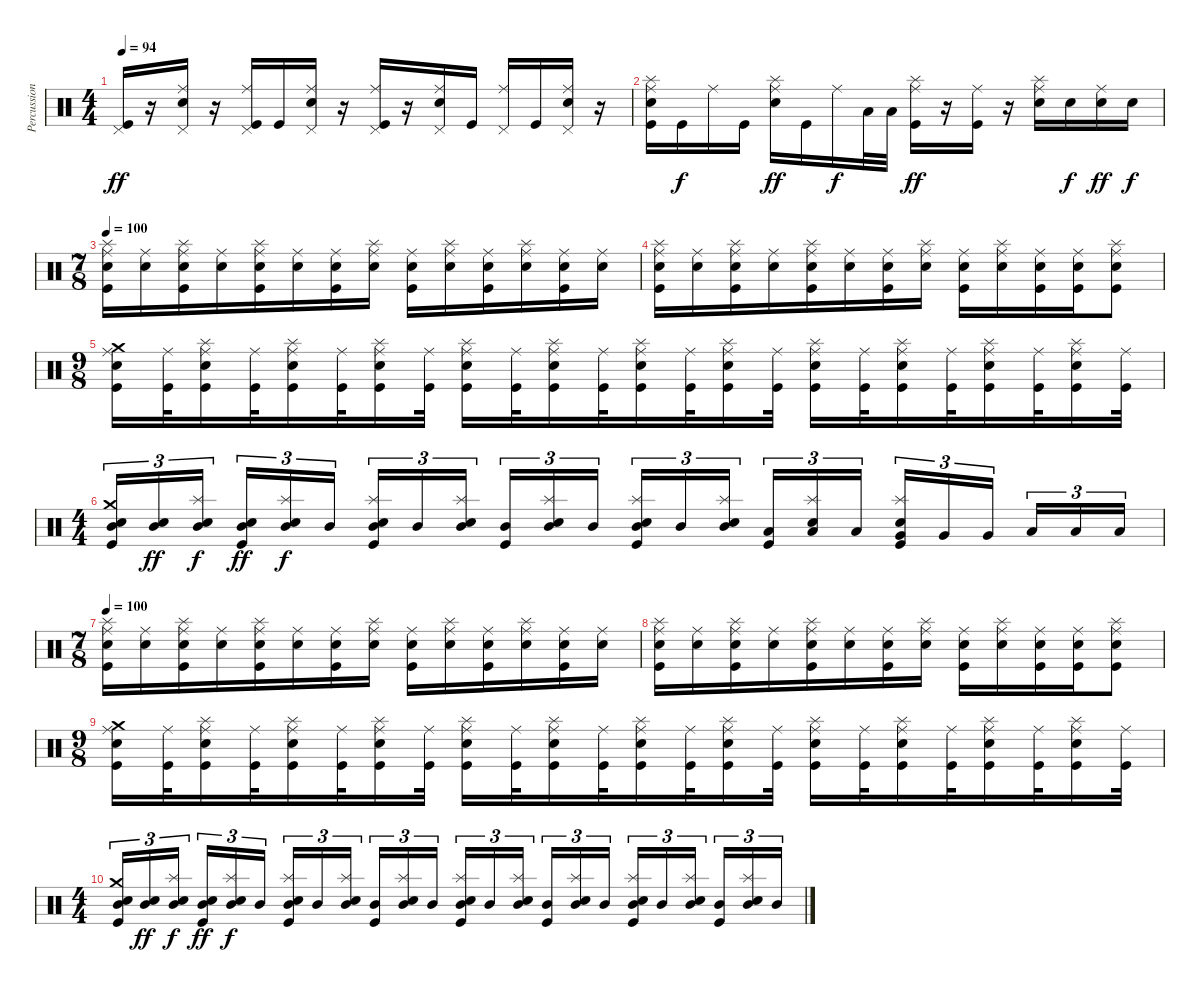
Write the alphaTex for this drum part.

\track ("Percussion" "Percussion") {instrument percussion}
\staff {score}
\articulation defaults
\ts (4 4)
\tempo 94
\clef neutral
\ks c
("Pedal Hi-Hat (hit)" "Kick (hit)").16{dy ff} r.16 ("Pedal Hi-Hat (hit)" "Ride (middle)" "Electric Snare (hit)").16 r.16 ("Pedal Hi-Hat (hit)" "Ride (middle)" "Kick (hit)").16 "Kick (hit)".16 ("Pedal Hi-Hat (hit)" "Ride (middle)" "Electric Snare (hit)").16 r.16 ("Pedal Hi-Hat (hit)" "Ride (middle)" "Kick (hit)").16 r.16 ("Pedal Hi-Hat (hit)" "Ride (middle)" "Electric Snare (hit)").16 "Kick (hit)".16 ("Pedal Hi-Hat (hit)" "Ride (middle)").16 "Kick (hit)".16 ("Pedal Hi-Hat (hit)" "Ride (middle)" "Electric Snare (hit)").16 r.16 |
("Ride (middle)" "Splash (hit)" "Electric Snare (hit)" "Kick (hit)").16 "Kick (hit)".16{dy f} "Ride (middle)".16 "Kick (hit)".16 ("Ride (middle)" "Splash (hit)" "Electric Snare (hit)").16{dy ff} "Kick (hit)".16 "Ride (middle)".16{dy f} "Low Tom (hit)".32 "Low Tom (hit)".32 ("Ride (middle)" "Splash (hit)" "Kick (hit)").16{dy ff} r.16 ("Ride (middle)" "Kick (hit)").16 r.16 ("Ride (middle)" "Splash (hit)" "Electric Snare (hit)").16 "Electric Snare (hit)".16{dy f} ("Ride (middle)" "Electric Snare (hit)").16{dy ff} "Electric Snare (hit)".16{dy f} |
\ts (7 8)
\tempo 100
("Ride (middle)" "Splash (hit)" "Electric Snare (hit)" "Kick (hit)").16 ("Ride (middle)" "Electric Snare (hit)").16 ("Ride (middle)" "Splash (hit)" "Electric Snare (hit)" "Kick (hit)").16 ("Ride (middle)" "Electric Snare (hit)").16 ("Ride (middle)" "Splash (hit)" "Electric Snare (hit)" "Kick (hit)").16 ("Ride (middle)" "Electric Snare (hit)").16 ("Ride (middle)" "Electric Snare (hit)" "Kick (hit)").16 ("Ride (middle)" "Splash (hit)" "Electric Snare (hit)").16 ("Ride (middle)" "Electric Snare (hit)" "Kick (hit)").16 ("Ride (middle)" "Splash (hit)" "Electric Snare (hit)").16 ("Ride (middle)" "Electric Snare (hit)" "Kick (hit)").16 ("Ride (middle)" "Splash (hit)" "Electric Snare (hit)").16 ("Ride (middle)" "Electric Snare (hit)" "Kick (hit)").16 ("Ride (middle)" "Electric Snare (hit)").16 |
("Ride (middle)" "Splash (hit)" "Electric Snare (hit)" "Kick (hit)").16 ("Ride (middle)" "Electric Snare (hit)").16 ("Ride (middle)" "Splash (hit)" "Electric Snare (hit)" "Kick (hit)").16 ("Ride (middle)" "Electric Snare (hit)").16 ("Ride (middle)" "Splash (hit)" "Electric Snare (hit)" "Kick (hit)").16 ("Ride (middle)" "Electric Snare (hit)").16 ("Ride (middle)" "Electric Snare (hit)" "Kick (hit)").16 ("Ride (middle)" "Splash (hit)" "Electric Snare (hit)").16 ("Ride (middle)" "Electric Snare (hit)" "Kick (hit)").16 ("Ride (middle)" "Splash (hit)" "Electric Snare (hit)").16 ("Ride (middle)" "Electric Snare (hit)" "Kick (hit)").16 ("Ride (middle)" "Electric Snare (hit)" "Kick (hit)").16 ("Ride (middle)" "Splash (hit)" "Electric Snare (hit)" "Kick (hit)").8 |
\ts (9 8)
("Crash medium (hit)" "Ride (middle)" "Electric Snare (hit)" "Kick (hit)").16 ("Ride (middle)" "Kick (hit)").32 ("Splash (hit)" "Ride (middle)" "Electric Snare (hit)" "Kick (hit)").16 ("Ride (middle)" "Kick (hit)").32 ("Splash (hit)" "Ride (middle)" "Electric Snare (hit)" "Kick (hit)").16 ("Ride (middle)" "Kick (hit)").32 ("Splash (hit)" "Ride (middle)" "Electric Snare (hit)" "Kick (hit)").16 ("Ride (middle)" "Kick (hit)").32 ("Splash (hit)" "Ride (middle)" "Electric Snare (hit)" "Kick (hit)").16 ("Ride (middle)" "Kick (hit)").32 ("Splash (hit)" "Ride (middle)" "Electric Snare (hit)" "Kick (hit)").16 ("Ride (middle)" "Kick (hit)").32 ("Splash (hit)" "Ride (middle)" "Electric Snare (hit)" "Kick (hit)").16 ("Ride (middle)" "Kick (hit)").32 ("Splash (hit)" "Ride (middle)" "Electric Snare (hit)" "Kick (hit)").16 ("Ride (middle)" "Kick (hit)").32 ("Splash (hit)" "Ride (middle)" "Electric Snare (hit)" "Kick (hit)").16 ("Ride (middle)" "Kick (hit)").32 ("Splash (hit)" "Ride (middle)" "Electric Snare (hit)" "Kick (hit)").16 ("Ride (middle)" "Kick (hit)").32 ("Splash (hit)" "Ride (middle)" "Electric Snare (hit)" "Kick (hit)").16 ("Ride (middle)" "Kick (hit)").32 ("Splash (hit)" "Ride (middle)" "Electric Snare (hit)" "Kick (hit)").16 ("Ride (middle)" "Kick (hit)").32 |
\ts (4 4)
("Crash medium (hit)" "Electric Snare (hit)" "Mid Tom (hit)" "Kick (hit)").16{tu (3 2)} ("Electric Snare (hit)" "Mid Tom (hit)").16{tu (3 2) dy ff} ("Splash (hit)" "Electric Snare (hit)" "Mid Tom (hit)").16{tu (3 2) dy f beam splitsecondary} ("Electric Snare (hit)" "Mid Tom (hit)" "Kick (hit)").16{tu (3 2) dy ff} ("Splash (hit)" "Electric Snare (hit)" "Mid Tom (hit)").16{tu (3 2) dy f} "Mid Tom (hit)".16{tu (3 2)} ("Splash (hit)" "Electric Snare (hit)" "Mid Tom (hit)" "Kick (hit)").16{tu (3 2)} "Mid Tom (hit)".16{tu (3 2)} ("Splash (hit)" "Electric Snare (hit)" "Mid Tom (hit)").16{tu (3 2) beam splitsecondary} ("Mid Tom (hit)" "Kick (hit)").16{tu (3 2)} ("Splash (hit)" "Electric Snare (hit)" "Mid Tom (hit)").16{tu (3 2)} "Mid Tom (hit)".16{tu (3 2)} ("Splash (hit)" "Electric Snare (hit)" "Mid Tom (hit)" "Kick (hit)").16{tu (3 2)} "Mid Tom (hit)".16{tu (3 2)} ("Splash (hit)" "Electric Snare (hit)" "Mid Tom (hit)").16{tu (3 2) beam splitsecondary} ("Low Tom (hit)" "Kick (hit)").16{tu (3 2)} ("Splash (hit)" "Electric Snare (hit)" "Low Tom (hit)").16{tu (3 2)} "Low Tom (hit)".16{tu (3 2)} ("Splash (hit)" "Electric Snare (hit)" "Very Low Tom (hit)" "Kick (hit)").16{tu (3 2)} "Very Low Tom (hit)".16{tu (3 2)} "Very Low Tom (hit)".16{tu (3 2) beam splitsecondary} "Low Floor Tom (hit)".16{tu (3 2)} "Low Floor Tom (hit)".16{tu (3 2)} "Low Floor Tom (hit)".16{tu (3 2)} |
\ts (7 8)
\tempo 100
("Ride (middle)" "Splash (hit)" "Electric Snare (hit)" "Kick (hit)").16 ("Ride (middle)" "Electric Snare (hit)").16 ("Ride (middle)" "Splash (hit)" "Electric Snare (hit)" "Kick (hit)").16 ("Ride (middle)" "Electric Snare (hit)").16 ("Ride (middle)" "Splash (hit)" "Electric Snare (hit)" "Kick (hit)").16 ("Ride (middle)" "Electric Snare (hit)").16 ("Ride (middle)" "Electric Snare (hit)" "Kick (hit)").16 ("Ride (middle)" "Splash (hit)" "Electric Snare (hit)").16 ("Ride (middle)" "Electric Snare (hit)" "Kick (hit)").16 ("Ride (middle)" "Splash (hit)" "Electric Snare (hit)").16 ("Ride (middle)" "Electric Snare (hit)" "Kick (hit)").16 ("Ride (middle)" "Splash (hit)" "Electric Snare (hit)").16 ("Ride (middle)" "Electric Snare (hit)" "Kick (hit)").16 ("Ride (middle)" "Electric Snare (hit)").16 |
("Ride (middle)" "Splash (hit)" "Electric Snare (hit)" "Kick (hit)").16 ("Ride (middle)" "Electric Snare (hit)").16 ("Ride (middle)" "Splash (hit)" "Electric Snare (hit)" "Kick (hit)").16 ("Ride (middle)" "Electric Snare (hit)").16 ("Ride (middle)" "Splash (hit)" "Electric Snare (hit)" "Kick (hit)").16 ("Ride (middle)" "Electric Snare (hit)").16 ("Ride (middle)" "Electric Snare (hit)" "Kick (hit)").16 ("Ride (middle)" "Splash (hit)" "Electric Snare (hit)").16 ("Ride (middle)" "Electric Snare (hit)" "Kick (hit)").16 ("Ride (middle)" "Splash (hit)" "Electric Snare (hit)").16 ("Ride (middle)" "Electric Snare (hit)" "Kick (hit)").16 ("Ride (middle)" "Electric Snare (hit)" "Kick (hit)").16 ("Ride (middle)" "Splash (hit)" "Electric Snare (hit)" "Kick (hit)").8 |
\ts (9 8)
("Crash medium (hit)" "Ride (middle)" "Electric Snare (hit)" "Kick (hit)").16 ("Ride (middle)" "Kick (hit)").32 ("Splash (hit)" "Ride (middle)" "Electric Snare (hit)" "Kick (hit)").16 ("Ride (middle)" "Kick (hit)").32 ("Splash (hit)" "Ride (middle)" "Electric Snare (hit)" "Kick (hit)").16 ("Ride (middle)" "Kick (hit)").32 ("Splash (hit)" "Ride (middle)" "Electric Snare (hit)" "Kick (hit)").16 ("Ride (middle)" "Kick (hit)").32 ("Splash (hit)" "Ride (middle)" "Electric Snare (hit)" "Kick (hit)").16 ("Ride (middle)" "Kick (hit)").32 ("Splash (hit)" "Ride (middle)" "Electric Snare (hit)" "Kick (hit)").16 ("Ride (middle)" "Kick (hit)").32 ("Splash (hit)" "Ride (middle)" "Electric Snare (hit)" "Kick (hit)").16 ("Ride (middle)" "Kick (hit)").32 ("Splash (hit)" "Ride (middle)" "Electric Snare (hit)" "Kick (hit)").16 ("Ride (middle)" "Kick (hit)").32 ("Splash (hit)" "Ride (middle)" "Electric Snare (hit)" "Kick (hit)").16 ("Ride (middle)" "Kick (hit)").32 ("Splash (hit)" "Ride (middle)" "Electric Snare (hit)" "Kick (hit)").16 ("Ride (middle)" "Kick (hit)").32 ("Splash (hit)" "Ride (middle)" "Electric Snare (hit)" "Kick (hit)").16 ("Ride (middle)" "Kick (hit)").32 ("Splash (hit)" "Ride (middle)" "Electric Snare (hit)" "Kick (hit)").16 ("Ride (middle)" "Kick (hit)").32 |
\ts (4 4)
("Crash medium (hit)" "Electric Snare (hit)" "Mid Tom (hit)" "Kick (hit)").16{tu (3 2)} ("Electric Snare (hit)" "Mid Tom (hit)").16{tu (3 2) dy ff} ("Splash (hit)" "Electric Snare (hit)" "Mid Tom (hit)").16{tu (3 2) dy f beam splitsecondary} ("Electric Snare (hit)" "Mid Tom (hit)" "Kick (hit)").16{tu (3 2) dy ff} ("Splash (hit)" "Electric Snare (hit)" "Mid Tom (hit)").16{tu (3 2) dy f} "Mid Tom (hit)".16{tu (3 2)} ("Splash (hit)" "Electric Snare (hit)" "Mid Tom (hit)" "Kick (hit)").16{tu (3 2)} "Mid Tom (hit)".16{tu (3 2)} ("Splash (hit)" "Electric Snare (hit)" "Mid Tom (hit)").16{tu (3 2) beam splitsecondary} ("Mid Tom (hit)" "Kick (hit)").16{tu (3 2)} ("Splash (hit)" "Electric Snare (hit)" "Mid Tom (hit)").16{tu (3 2)} "Mid Tom (hit)".16{tu (3 2)} ("Splash (hit)" "Electric Snare (hit)" "Mid Tom (hit)" "Kick (hit)").16{tu (3 2)} "Mid Tom (hit)".16{tu (3 2)} ("Splash (hit)" "Electric Snare (hit)" "Mid Tom (hit)").16{tu (3 2) beam splitsecondary} ("Mid Tom (hit)" "Kick (hit)").16{tu (3 2)} ("Splash (hit)" "Electric Snare (hit)" "Mid Tom (hit)").16{tu (3 2)} "Mid Tom (hit)".16{tu (3 2)} ("Splash (hit)" "Electric Snare (hit)" "Mid Tom (hit)" "Kick (hit)").16{tu (3 2)} "Mid Tom (hit)".16{tu (3 2)} ("Splash (hit)" "Electric Snare (hit)" "Mid Tom (hit)").16{tu (3 2) beam splitsecondary} ("Mid Tom (hit)" "Kick (hit)").16{tu (3 2)} ("Splash (hit)" "Electric Snare (hit)" "Mid Tom (hit)").16{tu (3 2)} "Mid Tom (hit)".16{tu (3 2)}
